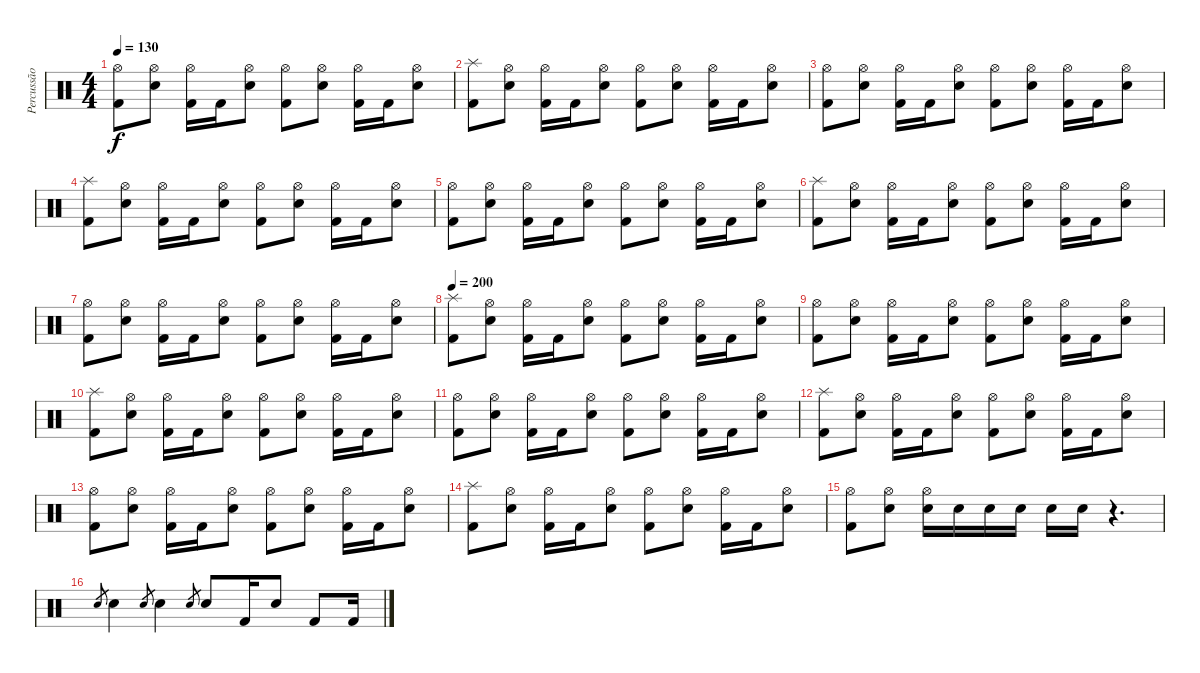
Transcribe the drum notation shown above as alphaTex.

\track ("Percussão" "Percussão") {instrument percussion}
\staff {score}
\articulation defaults
\ts (4 4)
\tempo 130
\clef neutral
\ks c
("Hi-Hat (open)" "Kick (hit) 2").8{dy f} ("Hi-Hat (open)" "Snare (hit) 2").8 ("Hi-Hat (open)" "Kick (hit) 2").16 "Kick (hit) 2".16 ("Hi-Hat (open)" "Snare (hit) 2").8 ("Hi-Hat (open)" "Kick (hit) 2").8 ("Hi-Hat (open)" "Snare (hit) 2").8 ("Hi-Hat (open)" "Kick (hit) 2").16 "Kick (hit) 2".16 ("Hi-Hat (open)" "Snare (hit) 2").8 |
("Splash (hit)" "Kick (hit) 2").8 ("Hi-Hat (open)" "Snare (hit) 2").8 ("Hi-Hat (open)" "Kick (hit) 2").16 "Kick (hit) 2".16 ("Hi-Hat (open)" "Snare (hit) 2").8 ("Hi-Hat (open)" "Kick (hit) 2").8 ("Hi-Hat (open)" "Snare (hit) 2").8 ("Hi-Hat (open)" "Kick (hit) 2").16 "Kick (hit) 2".16 ("Hi-Hat (open)" "Snare (hit) 2").8 |
("Hi-Hat (open)" "Kick (hit) 2").8 ("Hi-Hat (open)" "Snare (hit) 2").8 ("Hi-Hat (open)" "Kick (hit) 2").16 "Kick (hit) 2".16 ("Hi-Hat (open)" "Snare (hit) 2").8 ("Hi-Hat (open)" "Kick (hit) 2").8 ("Hi-Hat (open)" "Snare (hit) 2").8 ("Hi-Hat (open)" "Kick (hit) 2").16 "Kick (hit) 2".16 ("Hi-Hat (open)" "Snare (hit) 2").8 |
("Splash (hit)" "Kick (hit) 2").8 ("Hi-Hat (open)" "Snare (hit) 2").8 ("Hi-Hat (open)" "Kick (hit) 2").16 "Kick (hit) 2".16 ("Hi-Hat (open)" "Snare (hit) 2").8 ("Hi-Hat (open)" "Kick (hit) 2").8 ("Hi-Hat (open)" "Snare (hit) 2").8 ("Hi-Hat (open)" "Kick (hit) 2").16 "Kick (hit) 2".16 ("Hi-Hat (open)" "Snare (hit) 2").8 |
("Hi-Hat (open)" "Kick (hit) 2").8 ("Hi-Hat (open)" "Snare (hit) 2").8 ("Hi-Hat (open)" "Kick (hit) 2").16 "Kick (hit) 2".16 ("Hi-Hat (open)" "Snare (hit) 2").8 ("Hi-Hat (open)" "Kick (hit) 2").8 ("Hi-Hat (open)" "Snare (hit) 2").8 ("Hi-Hat (open)" "Kick (hit) 2").16 "Kick (hit) 2".16 ("Hi-Hat (open)" "Snare (hit) 2").8 |
("Splash (hit)" "Kick (hit) 2").8 ("Hi-Hat (open)" "Snare (hit) 2").8 ("Hi-Hat (open)" "Kick (hit) 2").16 "Kick (hit) 2".16 ("Hi-Hat (open)" "Snare (hit) 2").8 ("Hi-Hat (open)" "Kick (hit) 2").8 ("Hi-Hat (open)" "Snare (hit) 2").8 ("Hi-Hat (open)" "Kick (hit) 2").16 "Kick (hit) 2".16 ("Hi-Hat (open)" "Snare (hit) 2").8 |
("Hi-Hat (open)" "Kick (hit) 2").8 ("Hi-Hat (open)" "Snare (hit) 2").8 ("Hi-Hat (open)" "Kick (hit) 2").16 "Kick (hit) 2".16 ("Hi-Hat (open)" "Snare (hit) 2").8 ("Hi-Hat (open)" "Kick (hit) 2").8 ("Hi-Hat (open)" "Snare (hit) 2").8 ("Hi-Hat (open)" "Kick (hit) 2").16 "Kick (hit) 2".16 ("Hi-Hat (open)" "Snare (hit) 2").8 |
\tempo 200
("Splash (hit)" "Kick (hit) 2").8 ("Hi-Hat (open)" "Snare (hit) 2").8 ("Hi-Hat (open)" "Kick (hit) 2").16 "Kick (hit) 2".16 ("Hi-Hat (open)" "Snare (hit) 2").8 ("Hi-Hat (open)" "Kick (hit) 2").8 ("Hi-Hat (open)" "Snare (hit) 2").8 ("Hi-Hat (open)" "Kick (hit) 2").16 "Kick (hit) 2".16 ("Hi-Hat (open)" "Snare (hit) 2").8 |
("Hi-Hat (open)" "Kick (hit) 2").8 ("Hi-Hat (open)" "Snare (hit) 2").8 ("Hi-Hat (open)" "Kick (hit) 2").16 "Kick (hit) 2".16 ("Hi-Hat (open)" "Snare (hit) 2").8 ("Hi-Hat (open)" "Kick (hit) 2").8 ("Hi-Hat (open)" "Snare (hit) 2").8 ("Hi-Hat (open)" "Kick (hit) 2").16 "Kick (hit) 2".16 ("Hi-Hat (open)" "Snare (hit) 2").8 |
("Splash (hit)" "Kick (hit) 2").8 ("Hi-Hat (open)" "Snare (hit) 2").8 ("Hi-Hat (open)" "Kick (hit) 2").16 "Kick (hit) 2".16 ("Hi-Hat (open)" "Snare (hit) 2").8 ("Hi-Hat (open)" "Kick (hit) 2").8 ("Hi-Hat (open)" "Snare (hit) 2").8 ("Hi-Hat (open)" "Kick (hit) 2").16 "Kick (hit) 2".16 ("Hi-Hat (open)" "Snare (hit) 2").8 |
("Hi-Hat (open)" "Kick (hit) 2").8 ("Hi-Hat (open)" "Snare (hit) 2").8 ("Hi-Hat (open)" "Kick (hit) 2").16 "Kick (hit) 2".16 ("Hi-Hat (open)" "Snare (hit) 2").8 ("Hi-Hat (open)" "Kick (hit) 2").8 ("Hi-Hat (open)" "Snare (hit) 2").8 ("Hi-Hat (open)" "Kick (hit) 2").16 "Kick (hit) 2".16 ("Hi-Hat (open)" "Snare (hit) 2").8 |
("Splash (hit)" "Kick (hit) 2").8 ("Hi-Hat (open)" "Snare (hit) 2").8 ("Hi-Hat (open)" "Kick (hit) 2").16 "Kick (hit) 2".16 ("Hi-Hat (open)" "Snare (hit) 2").8 ("Hi-Hat (open)" "Kick (hit) 2").8 ("Hi-Hat (open)" "Snare (hit) 2").8 ("Hi-Hat (open)" "Kick (hit) 2").16 "Kick (hit) 2".16 ("Hi-Hat (open)" "Snare (hit) 2").8 |
("Hi-Hat (open)" "Kick (hit) 2").8 ("Hi-Hat (open)" "Snare (hit) 2").8 ("Hi-Hat (open)" "Kick (hit) 2").16 "Kick (hit) 2".16 ("Hi-Hat (open)" "Snare (hit) 2").8 ("Hi-Hat (open)" "Kick (hit) 2").8 ("Hi-Hat (open)" "Snare (hit) 2").8 ("Hi-Hat (open)" "Kick (hit) 2").16 "Kick (hit) 2".16 ("Hi-Hat (open)" "Snare (hit) 2").8 |
("Splash (hit)" "Kick (hit) 2").8 ("Hi-Hat (open)" "Snare (hit) 2").8 ("Hi-Hat (open)" "Kick (hit) 2").16 "Kick (hit) 2".16 ("Hi-Hat (open)" "Snare (hit) 2").8 ("Hi-Hat (open)" "Kick (hit) 2").8 ("Hi-Hat (open)" "Snare (hit) 2").8 ("Hi-Hat (open)" "Kick (hit) 2").16 "Kick (hit) 2".16 ("Hi-Hat (open)" "Snare (hit) 2").8 |
("Hi-Hat (open)" "Kick (hit) 2").8 ("Hi-Hat (open)" "Snare (hit) 2").8 ("Hi-Hat (open)" "Snare (hit) 2").16 "Snare (hit) 2".16 "Snare (hit) 2".16 "Snare (hit) 2".16 "Snare (hit) 2".16 "Snare (hit) 2".16 r.4{d} |
"Snare (hit) 2".8{gr} "Snare (hit) 2".4 "Snare (hit) 2".8{gr} "Snare (hit) 2".4 "Snare (hit) 2".8{gr} "Snare (hit) 2".8 "Kick (hit) 2".16 "Snare (hit) 2".8 "Kick (hit) 2".8 "Kick (hit) 2".16
